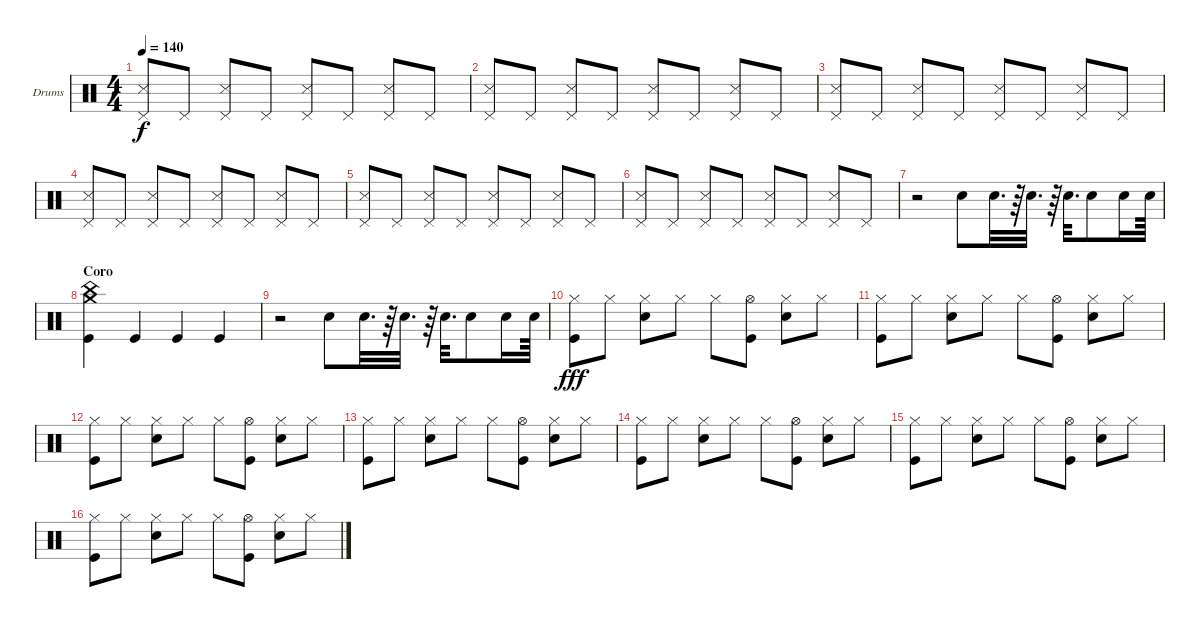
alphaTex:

\bracketExtendMode groupsimilarinstruments
\firstSystemTrackNameOrientation horizontal
\otherSystemsTrackNameOrientation horizontal
\track ("Drumkit" "Drums") {instrument percussion}
\staff {score}
\articulation defaults
\ts (4 4)
\tempo 140
\clef neutral
\ks c
("Snare (side stick) 3" "Pedal Hi-Hat (hit)").8{dy f} "Pedal Hi-Hat (hit)".8 ("Snare (side stick) 3" "Pedal Hi-Hat (hit)").8 "Pedal Hi-Hat (hit)".8 ("Snare (side stick) 3" "Pedal Hi-Hat (hit)").8 "Pedal Hi-Hat (hit)".8 ("Snare (side stick) 3" "Pedal Hi-Hat (hit)").8 "Pedal Hi-Hat (hit)".8 |
("Snare (side stick) 3" "Pedal Hi-Hat (hit)").8 "Pedal Hi-Hat (hit)".8 ("Snare (side stick) 3" "Pedal Hi-Hat (hit)").8 "Pedal Hi-Hat (hit)".8 ("Snare (side stick) 3" "Pedal Hi-Hat (hit)").8 "Pedal Hi-Hat (hit)".8 ("Snare (side stick) 3" "Pedal Hi-Hat (hit)").8 "Pedal Hi-Hat (hit)".8 |
("Snare (side stick) 3" "Pedal Hi-Hat (hit)").8 "Pedal Hi-Hat (hit)".8 ("Snare (side stick) 3" "Pedal Hi-Hat (hit)").8 "Pedal Hi-Hat (hit)".8 ("Snare (side stick) 3" "Pedal Hi-Hat (hit)").8 "Pedal Hi-Hat (hit)".8 ("Snare (side stick) 3" "Pedal Hi-Hat (hit)").8 "Pedal Hi-Hat (hit)".8 |
("Snare (side stick) 3" "Pedal Hi-Hat (hit)").8 "Pedal Hi-Hat (hit)".8 ("Snare (side stick) 3" "Pedal Hi-Hat (hit)").8 "Pedal Hi-Hat (hit)".8 ("Snare (side stick) 3" "Pedal Hi-Hat (hit)").8 "Pedal Hi-Hat (hit)".8 ("Snare (side stick) 3" "Pedal Hi-Hat (hit)").8 "Pedal Hi-Hat (hit)".8 |
("Snare (side stick) 3" "Pedal Hi-Hat (hit)").8 "Pedal Hi-Hat (hit)".8 ("Snare (side stick) 3" "Pedal Hi-Hat (hit)").8 "Pedal Hi-Hat (hit)".8 ("Snare (side stick) 3" "Pedal Hi-Hat (hit)").8 "Pedal Hi-Hat (hit)".8 ("Snare (side stick) 3" "Pedal Hi-Hat (hit)").8 "Pedal Hi-Hat (hit)".8 |
("Snare (side stick) 3" "Pedal Hi-Hat (hit)").8 "Pedal Hi-Hat (hit)".8 ("Snare (side stick) 3" "Pedal Hi-Hat (hit)").8 "Pedal Hi-Hat (hit)".8 ("Snare (side stick) 3" "Pedal Hi-Hat (hit)").8 "Pedal Hi-Hat (hit)".8 ("Snare (side stick) 3" "Pedal Hi-Hat (hit)").8 "Pedal Hi-Hat (hit)".8 |
r.2 "Snare (hit) 2".8 "Snare (hit) 2".32{d} r.64 "Snare (hit) 2".32{d} r.64 "Snare (hit) 2".32{d} "Snare (hit) 2".8 "Snare (hit) 2".16 "Snare (hit) 2".64 |
\section ("" "Coro")
("Crash medium (hit)" "Kick (hit)" "China (hit)").4 "Kick (hit)".4 "Kick (hit)".4 "Kick (hit)".4 |
r.2 "Snare (hit) 2".8 "Snare (hit) 2".32{d} r.64 "Snare (hit) 2".32{d} r.64 "Snare (hit) 2".32{d} "Snare (hit) 2".8 "Snare (hit) 2".16 "Snare (hit) 2".64 |
("Hi-Hat (closed)" "Kick (hit)").8{dy fff} "Hi-Hat (closed)".8 ("Hi-Hat (closed)" "Snare (hit) 2").8 "Hi-Hat (closed)".8 "Hi-Hat (closed)".8 ("Hi-Hat (open)" "Kick (hit)").8 ("Hi-Hat (closed)" "Snare (hit) 2").8 "Hi-Hat (closed)".8 |
("Hi-Hat (closed)" "Kick (hit)").8 "Hi-Hat (closed)".8 ("Hi-Hat (closed)" "Snare (hit) 2").8 "Hi-Hat (closed)".8 "Hi-Hat (closed)".8 ("Hi-Hat (open)" "Kick (hit)").8 ("Hi-Hat (closed)" "Snare (hit) 2").8 "Hi-Hat (closed)".8 |
("Hi-Hat (closed)" "Kick (hit)").8 "Hi-Hat (closed)".8 ("Hi-Hat (closed)" "Snare (hit) 2").8 "Hi-Hat (closed)".8 "Hi-Hat (closed)".8 ("Hi-Hat (open)" "Kick (hit)").8 ("Hi-Hat (closed)" "Snare (hit) 2").8 "Hi-Hat (closed)".8 |
("Hi-Hat (closed)" "Kick (hit)").8 "Hi-Hat (closed)".8 ("Hi-Hat (closed)" "Snare (hit) 2").8 "Hi-Hat (closed)".8 "Hi-Hat (closed)".8 ("Hi-Hat (open)" "Kick (hit)").8 ("Hi-Hat (closed)" "Snare (hit) 2").8 "Hi-Hat (closed)".8 |
("Hi-Hat (closed)" "Kick (hit)").8 "Hi-Hat (closed)".8 ("Hi-Hat (closed)" "Snare (hit) 2").8 "Hi-Hat (closed)".8 "Hi-Hat (closed)".8 ("Hi-Hat (open)" "Kick (hit)").8 ("Hi-Hat (closed)" "Snare (hit) 2").8 "Hi-Hat (closed)".8 |
("Hi-Hat (closed)" "Kick (hit)").8 "Hi-Hat (closed)".8 ("Hi-Hat (closed)" "Snare (hit) 2").8 "Hi-Hat (closed)".8 "Hi-Hat (closed)".8 ("Hi-Hat (open)" "Kick (hit)").8 ("Hi-Hat (closed)" "Snare (hit) 2").8 "Hi-Hat (closed)".8 |
("Hi-Hat (closed)" "Kick (hit)").8 "Hi-Hat (closed)".8 ("Hi-Hat (closed)" "Snare (hit) 2").8 "Hi-Hat (closed)".8 "Hi-Hat (closed)".8 ("Hi-Hat (open)" "Kick (hit)").8 ("Hi-Hat (closed)" "Snare (hit) 2").8 "Hi-Hat (closed)".8
